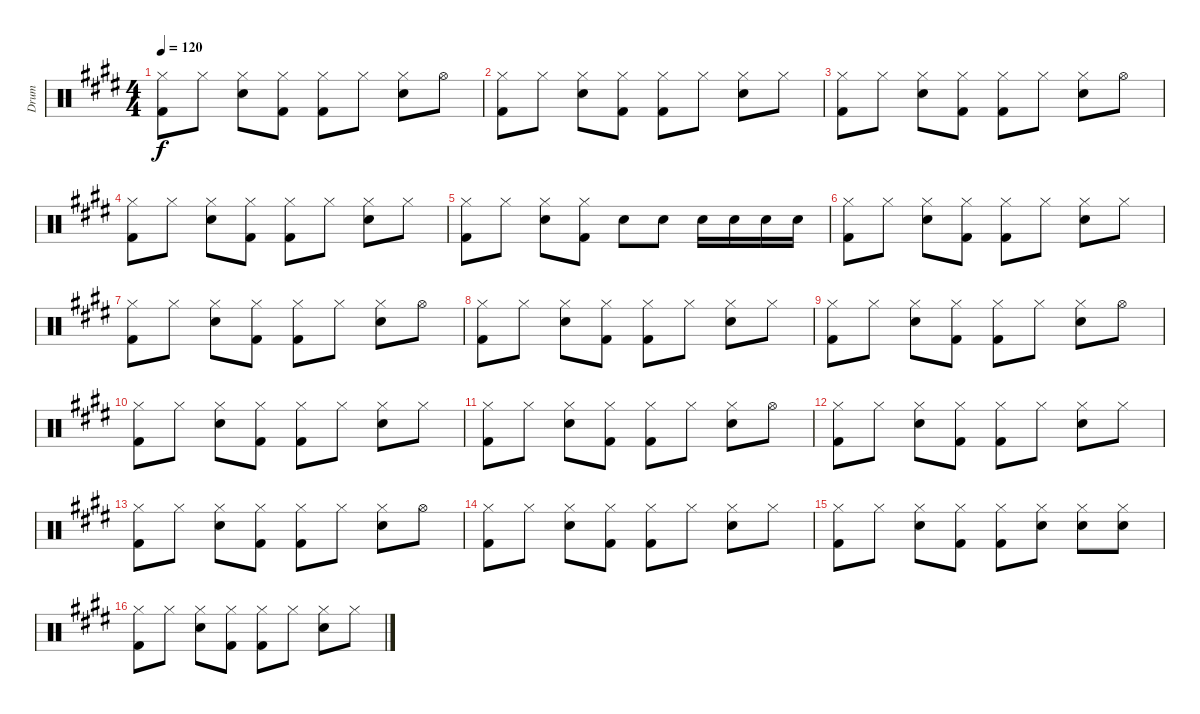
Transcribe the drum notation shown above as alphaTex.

\track ("Drum" "Drum") {instrument percussion}
\staff {score}
\articulation defaults
\ts (4 4)
\tempo 120
\clef neutral
\ks e
("Hi-Hat (closed)" "Kick (hit) 2").8{dy f} "Hi-Hat (closed)".8 ("Hi-Hat (closed)" "Snare (hit) 2").8 ("Hi-Hat (closed)" "Kick (hit) 2").8 ("Hi-Hat (closed)" "Kick (hit) 2").8 "Hi-Hat (closed)".8 ("Hi-Hat (closed)" "Snare (hit) 2").8 "Hi-Hat (open)".8 |
("Hi-Hat (closed)" "Kick (hit) 2").8 "Hi-Hat (closed)".8 ("Hi-Hat (closed)" "Snare (hit) 2").8 ("Hi-Hat (closed)" "Kick (hit) 2").8 ("Hi-Hat (closed)" "Kick (hit) 2").8 "Hi-Hat (closed)".8 ("Hi-Hat (closed)" "Snare (hit) 2").8 "Hi-Hat (closed)".8 |
("Hi-Hat (closed)" "Kick (hit) 2").8 "Hi-Hat (closed)".8 ("Hi-Hat (closed)" "Snare (hit) 2").8 ("Hi-Hat (closed)" "Kick (hit) 2").8 ("Hi-Hat (closed)" "Kick (hit) 2").8 "Hi-Hat (closed)".8 ("Hi-Hat (closed)" "Snare (hit) 2").8 "Hi-Hat (open)".8 |
("Hi-Hat (closed)" "Kick (hit) 2").8 "Hi-Hat (closed)".8 ("Hi-Hat (closed)" "Snare (hit) 2").8 ("Hi-Hat (closed)" "Kick (hit) 2").8 ("Hi-Hat (closed)" "Kick (hit) 2").8 "Hi-Hat (closed)".8 ("Hi-Hat (closed)" "Snare (hit) 2").8 "Hi-Hat (closed)".8 |
("Hi-Hat (closed)" "Kick (hit) 2").8 "Hi-Hat (closed)".8 ("Hi-Hat (closed)" "Snare (hit) 2").8 ("Hi-Hat (closed)" "Kick (hit) 2").8 "Snare (hit) 2".8 "Snare (hit) 2".8 "Snare (hit) 2".16 "Snare (hit) 2".16 "Snare (hit) 2".16 "Snare (hit) 2".16 |
("Hi-Hat (closed)" "Kick (hit) 2").8 "Hi-Hat (closed)".8 ("Hi-Hat (closed)" "Snare (hit) 2").8 ("Hi-Hat (closed)" "Kick (hit) 2").8 ("Hi-Hat (closed)" "Kick (hit) 2").8 "Hi-Hat (closed)".8 ("Hi-Hat (closed)" "Snare (hit) 2").8 "Hi-Hat (closed)".8 |
("Hi-Hat (closed)" "Kick (hit) 2").8 "Hi-Hat (closed)".8 ("Hi-Hat (closed)" "Snare (hit) 2").8 ("Hi-Hat (closed)" "Kick (hit) 2").8 ("Hi-Hat (closed)" "Kick (hit) 2").8 "Hi-Hat (closed)".8 ("Hi-Hat (closed)" "Snare (hit) 2").8 "Hi-Hat (open)".8 |
("Hi-Hat (closed)" "Kick (hit) 2").8 "Hi-Hat (closed)".8 ("Hi-Hat (closed)" "Snare (hit) 2").8 ("Hi-Hat (closed)" "Kick (hit) 2").8 ("Hi-Hat (closed)" "Kick (hit) 2").8 "Hi-Hat (closed)".8 ("Hi-Hat (closed)" "Snare (hit) 2").8 "Hi-Hat (closed)".8 |
("Hi-Hat (closed)" "Kick (hit) 2").8 "Hi-Hat (closed)".8 ("Hi-Hat (closed)" "Snare (hit) 2").8 ("Hi-Hat (closed)" "Kick (hit) 2").8 ("Hi-Hat (closed)" "Kick (hit) 2").8 "Hi-Hat (closed)".8 ("Hi-Hat (closed)" "Snare (hit) 2").8 "Hi-Hat (open)".8 |
("Hi-Hat (closed)" "Kick (hit) 2").8 "Hi-Hat (closed)".8 ("Hi-Hat (closed)" "Snare (hit) 2").8 ("Hi-Hat (closed)" "Kick (hit) 2").8 ("Hi-Hat (closed)" "Kick (hit) 2").8 "Hi-Hat (closed)".8 ("Hi-Hat (closed)" "Snare (hit) 2").8 "Hi-Hat (closed)".8 |
("Hi-Hat (closed)" "Kick (hit) 2").8 "Hi-Hat (closed)".8 ("Hi-Hat (closed)" "Snare (hit) 2").8 ("Hi-Hat (closed)" "Kick (hit) 2").8 ("Hi-Hat (closed)" "Kick (hit) 2").8 "Hi-Hat (closed)".8 ("Hi-Hat (closed)" "Snare (hit) 2").8 "Hi-Hat (open)".8 |
("Hi-Hat (closed)" "Kick (hit) 2").8 "Hi-Hat (closed)".8 ("Hi-Hat (closed)" "Snare (hit) 2").8 ("Hi-Hat (closed)" "Kick (hit) 2").8 ("Hi-Hat (closed)" "Kick (hit) 2").8 "Hi-Hat (closed)".8 ("Hi-Hat (closed)" "Snare (hit) 2").8 "Hi-Hat (closed)".8 |
("Hi-Hat (closed)" "Kick (hit) 2").8 "Hi-Hat (closed)".8 ("Hi-Hat (closed)" "Snare (hit) 2").8 ("Hi-Hat (closed)" "Kick (hit) 2").8 ("Hi-Hat (closed)" "Kick (hit) 2").8 "Hi-Hat (closed)".8 ("Hi-Hat (closed)" "Snare (hit) 2").8 "Hi-Hat (open)".8 |
("Hi-Hat (closed)" "Kick (hit) 2").8 "Hi-Hat (closed)".8 ("Hi-Hat (closed)" "Snare (hit) 2").8 ("Hi-Hat (closed)" "Kick (hit) 2").8 ("Hi-Hat (closed)" "Kick (hit) 2").8 "Hi-Hat (closed)".8 ("Hi-Hat (closed)" "Snare (hit) 2").8 "Hi-Hat (closed)".8 |
("Hi-Hat (closed)" "Kick (hit) 2").8 "Hi-Hat (closed)".8 ("Hi-Hat (closed)" "Snare (hit) 2").8 ("Hi-Hat (closed)" "Kick (hit) 2").8 ("Hi-Hat (closed)" "Kick (hit) 2").8 ("Hi-Hat (closed)" "Snare (hit) 2").8 ("Hi-Hat (closed)" "Snare (hit) 2").8 ("Hi-Hat (closed)" "Snare (hit) 2").8 |
("Hi-Hat (closed)" "Kick (hit) 2").8 "Hi-Hat (closed)".8 ("Hi-Hat (closed)" "Snare (hit) 2").8 ("Hi-Hat (closed)" "Kick (hit) 2").8 ("Hi-Hat (closed)" "Kick (hit) 2").8 "Hi-Hat (closed)".8 ("Hi-Hat (closed)" "Snare (hit) 2").8 "Hi-Hat (closed)".8
